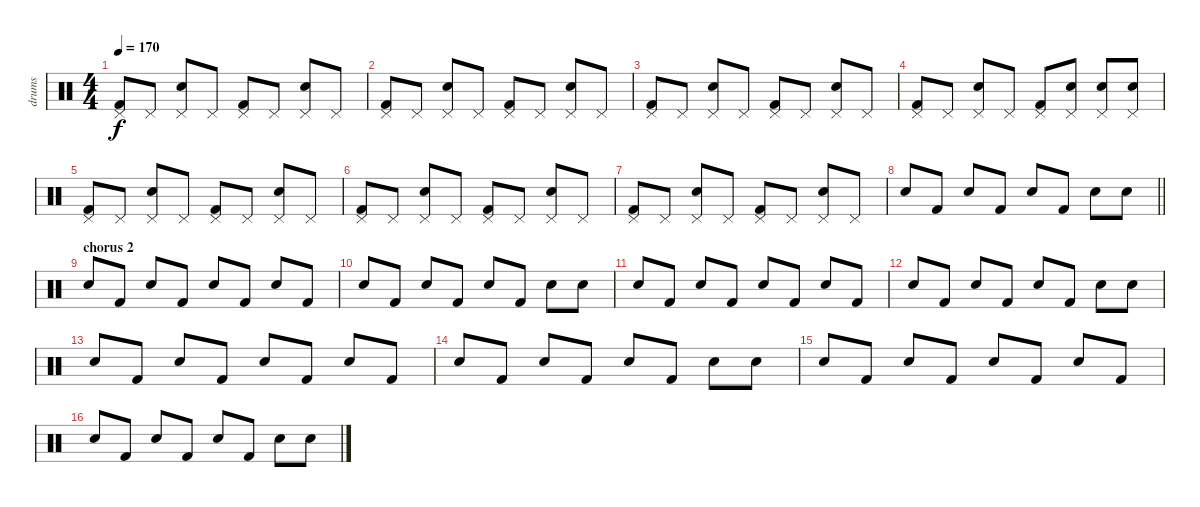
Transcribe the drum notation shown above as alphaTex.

\track ("drums" "drums") {instrument percussion}
\staff {score}
\articulation defaults
\ts (4 4)
\tempo 170
\clef neutral
\ks c
("Kick (hit) 2" "Pedal Hi-Hat (hit)").8{dy f} "Pedal Hi-Hat (hit)".8 ("Electric Snare (hit)" "Pedal Hi-Hat (hit)").8 "Pedal Hi-Hat (hit)".8 ("Kick (hit) 2" "Pedal Hi-Hat (hit)").8 "Pedal Hi-Hat (hit)".8 ("Electric Snare (hit)" "Pedal Hi-Hat (hit)").8 "Pedal Hi-Hat (hit)".8 |
("Kick (hit) 2" "Pedal Hi-Hat (hit)").8 "Pedal Hi-Hat (hit)".8 ("Electric Snare (hit)" "Pedal Hi-Hat (hit)").8 "Pedal Hi-Hat (hit)".8 ("Kick (hit) 2" "Pedal Hi-Hat (hit)").8 "Pedal Hi-Hat (hit)".8 ("Electric Snare (hit)" "Pedal Hi-Hat (hit)").8 "Pedal Hi-Hat (hit)".8 |
("Kick (hit) 2" "Pedal Hi-Hat (hit)").8 "Pedal Hi-Hat (hit)".8 ("Electric Snare (hit)" "Pedal Hi-Hat (hit)").8 "Pedal Hi-Hat (hit)".8 ("Kick (hit) 2" "Pedal Hi-Hat (hit)").8 "Pedal Hi-Hat (hit)".8 ("Electric Snare (hit)" "Pedal Hi-Hat (hit)").8 "Pedal Hi-Hat (hit)".8 |
("Kick (hit) 2" "Pedal Hi-Hat (hit)").8 "Pedal Hi-Hat (hit)".8 ("Electric Snare (hit)" "Pedal Hi-Hat (hit)").8 "Pedal Hi-Hat (hit)".8 ("Kick (hit) 2" "Pedal Hi-Hat (hit)").8 ("Electric Snare (hit)" "Pedal Hi-Hat (hit)").8 ("Electric Snare (hit)" "Pedal Hi-Hat (hit)").8 ("Electric Snare (hit)" "Pedal Hi-Hat (hit)").8 |
("Kick (hit) 2" "Pedal Hi-Hat (hit)").8 "Pedal Hi-Hat (hit)".8 ("Electric Snare (hit)" "Pedal Hi-Hat (hit)").8 "Pedal Hi-Hat (hit)".8 ("Kick (hit) 2" "Pedal Hi-Hat (hit)").8 "Pedal Hi-Hat (hit)".8 ("Electric Snare (hit)" "Pedal Hi-Hat (hit)").8 "Pedal Hi-Hat (hit)".8 |
("Kick (hit) 2" "Pedal Hi-Hat (hit)").8 "Pedal Hi-Hat (hit)".8 ("Electric Snare (hit)" "Pedal Hi-Hat (hit)").8 "Pedal Hi-Hat (hit)".8 ("Kick (hit) 2" "Pedal Hi-Hat (hit)").8 "Pedal Hi-Hat (hit)".8 ("Electric Snare (hit)" "Pedal Hi-Hat (hit)").8 "Pedal Hi-Hat (hit)".8 |
("Kick (hit) 2" "Pedal Hi-Hat (hit)").8 "Pedal Hi-Hat (hit)".8 ("Electric Snare (hit)" "Pedal Hi-Hat (hit)").8 "Pedal Hi-Hat (hit)".8 ("Kick (hit) 2" "Pedal Hi-Hat (hit)").8 "Pedal Hi-Hat (hit)".8 ("Electric Snare (hit)" "Pedal Hi-Hat (hit)").8 "Pedal Hi-Hat (hit)".8 |
\barLineRight lightlight "Electric Snare (hit)".8 "Kick (hit) 2".8 "Electric Snare (hit)".8 "Kick (hit) 2".8 "Electric Snare (hit)".8 "Kick (hit) 2".8 "Electric Snare (hit)".8 "Electric Snare (hit)".8
|
\section ("" "chorus 2")
"Electric Snare (hit)".8 "Kick (hit) 2".8 "Electric Snare (hit)".8 "Kick (hit) 2".8 "Electric Snare (hit)".8 "Kick (hit) 2".8 "Electric Snare (hit)".8 "Kick (hit) 2".8 |
"Electric Snare (hit)".8 "Kick (hit) 2".8 "Electric Snare (hit)".8 "Kick (hit) 2".8 "Electric Snare (hit)".8 "Kick (hit) 2".8 "Electric Snare (hit)".8 "Electric Snare (hit)".8 |
"Electric Snare (hit)".8 "Kick (hit) 2".8 "Electric Snare (hit)".8 "Kick (hit) 2".8 "Electric Snare (hit)".8 "Kick (hit) 2".8 "Electric Snare (hit)".8 "Kick (hit) 2".8 |
"Electric Snare (hit)".8 "Kick (hit) 2".8 "Electric Snare (hit)".8 "Kick (hit) 2".8 "Electric Snare (hit)".8 "Kick (hit) 2".8 "Electric Snare (hit)".8 "Electric Snare (hit)".8 |
"Electric Snare (hit)".8 "Kick (hit) 2".8 "Electric Snare (hit)".8 "Kick (hit) 2".8 "Electric Snare (hit)".8 "Kick (hit) 2".8 "Electric Snare (hit)".8 "Kick (hit) 2".8 |
"Electric Snare (hit)".8 "Kick (hit) 2".8 "Electric Snare (hit)".8 "Kick (hit) 2".8 "Electric Snare (hit)".8 "Kick (hit) 2".8 "Electric Snare (hit)".8 "Electric Snare (hit)".8 |
"Electric Snare (hit)".8 "Kick (hit) 2".8 "Electric Snare (hit)".8 "Kick (hit) 2".8 "Electric Snare (hit)".8 "Kick (hit) 2".8 "Electric Snare (hit)".8 "Kick (hit) 2".8 |
"Electric Snare (hit)".8 "Kick (hit) 2".8 "Electric Snare (hit)".8 "Kick (hit) 2".8 "Electric Snare (hit)".8 "Kick (hit) 2".8 "Electric Snare (hit)".8 "Electric Snare (hit)".8
